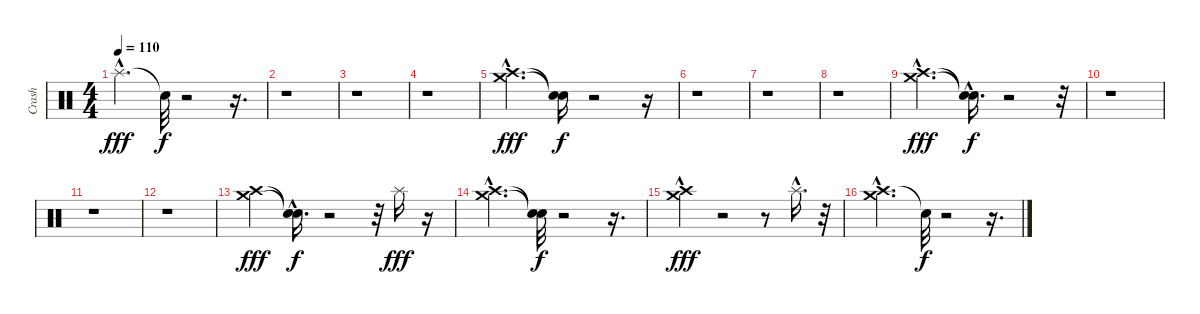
\track ("Crash" "Crash") {instrument percussion}
\staff {score}
\articulation defaults
\ts (4 4)
\tempo 110
\clef neutral
\ks c "Splash (hit)"{hac}.4{d dy fff} "Snare (hit)"{t}.32{dy f}
r.2 r.16{d} |
r.1 |
r.1 |
r.1 |
("Crash medium (hit)"{hac} "Crash high (hit)"{hac}).4{d dy fff} ("Snare (hit)"{t} "Snare (hit)"{t}).16{dy f} r.2 r.16 |
r.1 |
r.1 |
r.1 |
("Crash high (hit)"{hac} "Crash medium (hit)"{hac}).4{d dy fff} ("Snare (hit)"{hac t} "Snare (hit)"{hac t}).16{d dy f} r.2 r.32 |
r.1 |
r.1 |
r.1 |
("Crash medium (hit)" "Crash high (hit)").4{dy fff} ("Snare (hit)"{hac t} "Snare (hit)"{hac t}).16{d dy f} r.2 r.32 "Splash (hit)".16{dy fff} r.16 |
("Crash high (hit)"{hac} "Crash medium (hit)"{hac}).4{d} ("Snare (hit)"{t} "Snare (hit)"{t}).32{dy f} r.2 r.16{d} |
("Crash high (hit)"{hac} "Crash medium (hit)").4{dy fff} r.2 r.8 "Splash (hit)"{hac}.16{d} r.32 |
("Crash high (hit)"{hac} "Crash medium (hit)"{hac}).4{d} "Snare (hit)"{t}.32{dy f} r.2 r.16{d}
